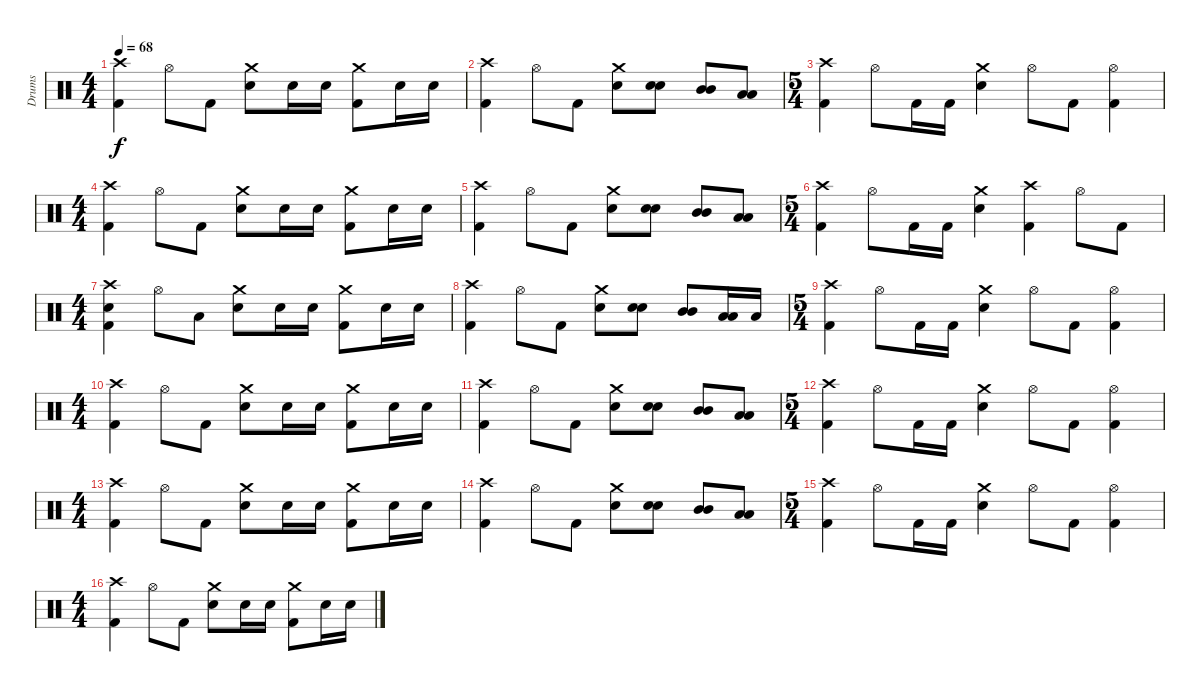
\track ("Drums" "Drums") {instrument percussion}
\staff {score}
\articulation defaults
\ts (4 4)
\tempo 68
\clef neutral
\ks c
("Crash high (hit)" "Kick (hit) 2").4{dy f} "Hi-Hat (open)".8 "Kick (hit) 2".8 ("Crash medium (hit)" "Electric Snare (hit)").8 "Electric Snare (hit)".16 "Electric Snare (hit)".16 ("Crash medium (hit)" "Kick (hit) 2").8 "Electric Snare (hit)".16 "Electric Snare (hit)".16 |
("Crash high (hit)" "Kick (hit) 2").4 "Hi-Hat (open)".8 "Kick (hit) 2".8 ("Crash medium (hit)" "Electric Snare (hit)").8 ("Electric Snare (hit)" "Electric Snare (hit)").8{bu 60} ("Mid Tom (hit)" "Mid Tom (hit)").8{bu 60} ("Low Tom (hit)" "Low Tom (hit)").8{bu 60} |
\ts (5 4)
("Crash high (hit)" "Kick (hit) 2").4 "Hi-Hat (open)".8 "Kick (hit) 2".16 "Kick (hit) 2".16 ("Crash medium (hit)" "Electric Snare (hit)").4 "Hi-Hat (open)".8 "Kick (hit) 2".8 ("Hi-Hat (open)" "Kick (hit) 2").4 |
\ts (4 4)
("Crash high (hit)" "Kick (hit) 2").4 "Hi-Hat (open)".8 "Kick (hit) 2".8 ("Crash medium (hit)" "Electric Snare (hit)").8 "Electric Snare (hit)".16 "Electric Snare (hit)".16 ("Crash medium (hit)" "Kick (hit) 2").8 "Electric Snare (hit)".16 "Electric Snare (hit)".16 |
("Crash high (hit)" "Kick (hit) 2").4 "Hi-Hat (open)".8 "Kick (hit) 2".8 ("Crash medium (hit)" "Electric Snare (hit)").8 ("Electric Snare (hit)" "Electric Snare (hit)").8{bu 60} ("Mid Tom (hit)" "Mid Tom (hit)").8{bu 60} ("Low Tom (hit)" "Low Tom (hit)").8{bu 60} |
\ts (5 4)
("Crash high (hit)" "Kick (hit) 2").4 "Hi-Hat (open)".8 "Kick (hit) 2".16 "Kick (hit) 2".16 ("Crash medium (hit)" "Electric Snare (hit)").4 ("Crash high (hit)" "Kick (hit) 2").4 "Hi-Hat (open)".8 "Kick (hit) 2".8 |
\ts (4 4)
("Crash high (hit)" "Electric Snare (hit)" "Kick (hit) 2").4 "Hi-Hat (open)".8 "Low Tom (hit)".8 ("Crash medium (hit)" "Electric Snare (hit)").8 "Electric Snare (hit)".16 "Electric Snare (hit)".16 ("Crash medium (hit)" "Kick (hit) 2").8 "Electric Snare (hit)".16 "Electric Snare (hit)".16 |
("Crash high (hit)" "Kick (hit) 2").4 "Hi-Hat (open)".8 "Kick (hit) 2".8 ("Crash medium (hit)" "Electric Snare (hit)").8 ("Electric Snare (hit)" "Electric Snare (hit)").8{bu 60} ("Mid Tom (hit)" "Mid Tom (hit)").8{bu 60} ("Low Tom (hit)" "Low Tom (hit)").16{bu 60} "Low Tom (hit)".16 |
\ts (5 4)
("Crash high (hit)" "Kick (hit) 2").4 "Hi-Hat (open)".8 "Kick (hit) 2".16 "Kick (hit) 2".16 ("Crash medium (hit)" "Electric Snare (hit)").4 "Hi-Hat (open)".8 "Kick (hit) 2".8 ("Hi-Hat (open)" "Kick (hit) 2").4 |
\ts (4 4)
("Crash high (hit)" "Kick (hit) 2").4 "Hi-Hat (open)".8 "Kick (hit) 2".8 ("Crash medium (hit)" "Electric Snare (hit)").8 "Electric Snare (hit)".16 "Electric Snare (hit)".16 ("Crash medium (hit)" "Kick (hit) 2").8 "Electric Snare (hit)".16 "Electric Snare (hit)".16 |
("Crash high (hit)" "Kick (hit) 2").4 "Hi-Hat (open)".8 "Kick (hit) 2".8 ("Crash medium (hit)" "Electric Snare (hit)").8 ("Electric Snare (hit)" "Electric Snare (hit)").8{bu 60} ("Mid Tom (hit)" "Mid Tom (hit)").8{bu 60} ("Low Tom (hit)" "Low Tom (hit)").8{bu 60} |
\ts (5 4)
("Crash high (hit)" "Kick (hit) 2").4 "Hi-Hat (open)".8 "Kick (hit) 2".16 "Kick (hit) 2".16 ("Crash medium (hit)" "Electric Snare (hit)").4 "Hi-Hat (open)".8 "Kick (hit) 2".8 ("Hi-Hat (open)" "Kick (hit) 2").4 |
\ts (4 4)
("Crash high (hit)" "Kick (hit) 2").4 "Hi-Hat (open)".8 "Kick (hit) 2".8 ("Crash medium (hit)" "Electric Snare (hit)").8 "Electric Snare (hit)".16 "Electric Snare (hit)".16 ("Crash medium (hit)" "Kick (hit) 2").8 "Electric Snare (hit)".16 "Electric Snare (hit)".16 |
("Crash high (hit)" "Kick (hit) 2").4 "Hi-Hat (open)".8 "Kick (hit) 2".8 ("Crash medium (hit)" "Electric Snare (hit)").8 ("Electric Snare (hit)" "Electric Snare (hit)").8{bu 60} ("Mid Tom (hit)" "Mid Tom (hit)").8{bu 60} ("Low Tom (hit)" "Low Tom (hit)").8{bu 60} |
\ts (5 4)
("Crash high (hit)" "Kick (hit) 2").4 "Hi-Hat (open)".8 "Kick (hit) 2".16 "Kick (hit) 2".16 ("Crash medium (hit)" "Electric Snare (hit)").4 "Hi-Hat (open)".8 "Kick (hit) 2".8 ("Hi-Hat (open)" "Kick (hit) 2").4 |
\ts (4 4)
("Crash high (hit)" "Kick (hit) 2").4 "Hi-Hat (open)".8 "Kick (hit) 2".8 ("Crash medium (hit)" "Electric Snare (hit)").8 "Electric Snare (hit)".16 "Electric Snare (hit)".16 ("Crash medium (hit)" "Kick (hit) 2").8 "Electric Snare (hit)".16 "Electric Snare (hit)".16
